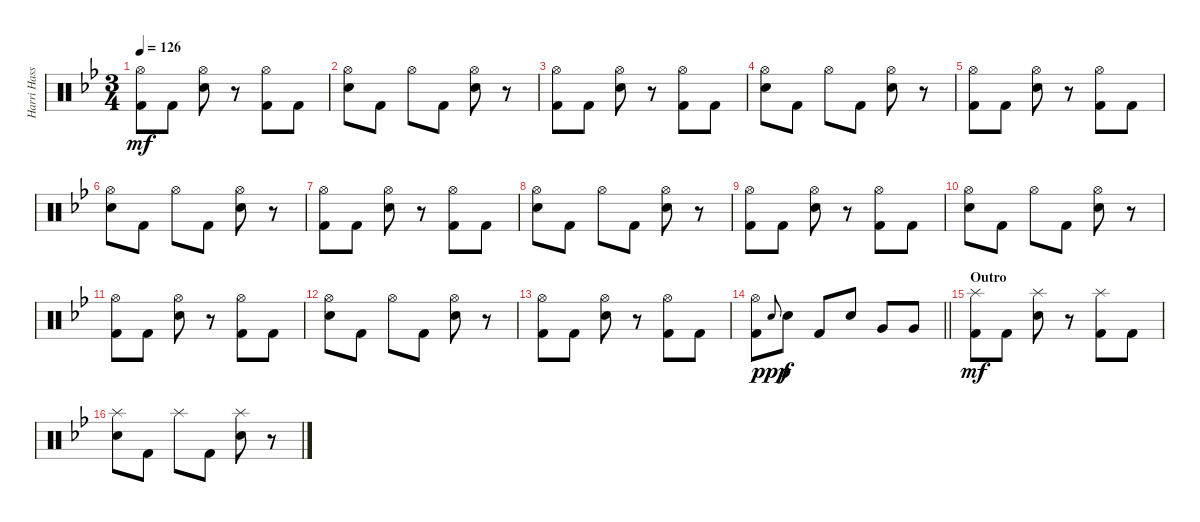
\track ("Harri Hassin (drums)" "Harri Hass") {instrument percussion}
\staff {score}
\articulation defaults
\ts (3 4)
\tempo 126
\clef neutral
\ks bb
("Hi-Hat (open)" "Kick (hit) 2").8{dy mf} "Kick (hit) 2".8 ("Hi-Hat (open)" "Electric Snare (hit)").8 r.8 ("Hi-Hat (open)" "Kick (hit) 2").8 "Kick (hit) 2".8 |
("Hi-Hat (open)" "Electric Snare (hit)").8 "Kick (hit) 2".8 "Hi-Hat (open)".8 "Kick (hit) 2".8 ("Hi-Hat (open)" "Electric Snare (hit)").8 r.8 |
("Hi-Hat (open)" "Kick (hit) 2").8 "Kick (hit) 2".8 ("Hi-Hat (open)" "Electric Snare (hit)").8 r.8 ("Hi-Hat (open)" "Kick (hit) 2").8 "Kick (hit) 2".8 |
("Hi-Hat (open)" "Electric Snare (hit)").8 "Kick (hit) 2".8 "Hi-Hat (open)".8 "Kick (hit) 2".8 ("Hi-Hat (open)" "Electric Snare (hit)").8 r.8 |
("Hi-Hat (open)" "Kick (hit) 2").8 "Kick (hit) 2".8 ("Hi-Hat (open)" "Electric Snare (hit)").8 r.8 ("Hi-Hat (open)" "Kick (hit) 2").8 "Kick (hit) 2".8 |
("Hi-Hat (open)" "Electric Snare (hit)").8 "Kick (hit) 2".8 "Hi-Hat (open)".8 "Kick (hit) 2".8 ("Hi-Hat (open)" "Electric Snare (hit)").8 r.8 |
("Hi-Hat (open)" "Kick (hit) 2").8 "Kick (hit) 2".8 ("Hi-Hat (open)" "Electric Snare (hit)").8 r.8 ("Hi-Hat (open)" "Kick (hit) 2").8 "Kick (hit) 2".8 |
("Hi-Hat (open)" "Electric Snare (hit)").8 "Kick (hit) 2".8 "Hi-Hat (open)".8 "Kick (hit) 2".8 ("Hi-Hat (open)" "Electric Snare (hit)").8 r.8 |
("Hi-Hat (open)" "Kick (hit) 2").8 "Kick (hit) 2".8 ("Hi-Hat (open)" "Electric Snare (hit)").8 r.8 ("Hi-Hat (open)" "Kick (hit) 2").8 "Kick (hit) 2".8 |
("Hi-Hat (open)" "Electric Snare (hit)").8 "Kick (hit) 2".8 "Hi-Hat (open)".8 "Kick (hit) 2".8 ("Hi-Hat (open)" "Electric Snare (hit)").8 r.8 |
("Hi-Hat (open)" "Kick (hit) 2").8 "Kick (hit) 2".8 ("Hi-Hat (open)" "Electric Snare (hit)").8 r.8 ("Hi-Hat (open)" "Kick (hit) 2").8 "Kick (hit) 2".8 |
("Hi-Hat (open)" "Electric Snare (hit)").8 "Kick (hit) 2".8 "Hi-Hat (open)".8 "Kick (hit) 2".8 ("Hi-Hat (open)" "Electric Snare (hit)").8 r.8 |
("Hi-Hat (open)" "Kick (hit) 2").8 "Kick (hit) 2".8 ("Hi-Hat (open)" "Electric Snare (hit)").8 r.8 ("Hi-Hat (open)" "Kick (hit) 2").8 "Kick (hit) 2".8 |
\barLineRight lightlight
("Hi-Hat (open)" "Kick (hit) 2").8 "Electric Snare (hit)".8{gr onbeat dy ppp} "Electric Snare (hit)".8{dy f} "Kick (hit) 2".8 "Electric Snare (hit)".8 "Very Low Tom (hit)".8 "Very Low Tom (hit)".8 |
\section ("" "Outro")
("Splash (hit)" "Kick (hit) 2").8{dy mf} "Kick (hit) 2".8 ("Splash (hit)" "Electric Snare (hit)").8 r.8 ("Splash (hit)" "Kick (hit) 2").8 "Kick (hit) 2".8 |
("Splash (hit)" "Electric Snare (hit)").8 "Kick (hit) 2".8 "Splash (hit)".8 "Kick (hit) 2".8 ("Splash (hit)" "Electric Snare (hit)").8 r.8
